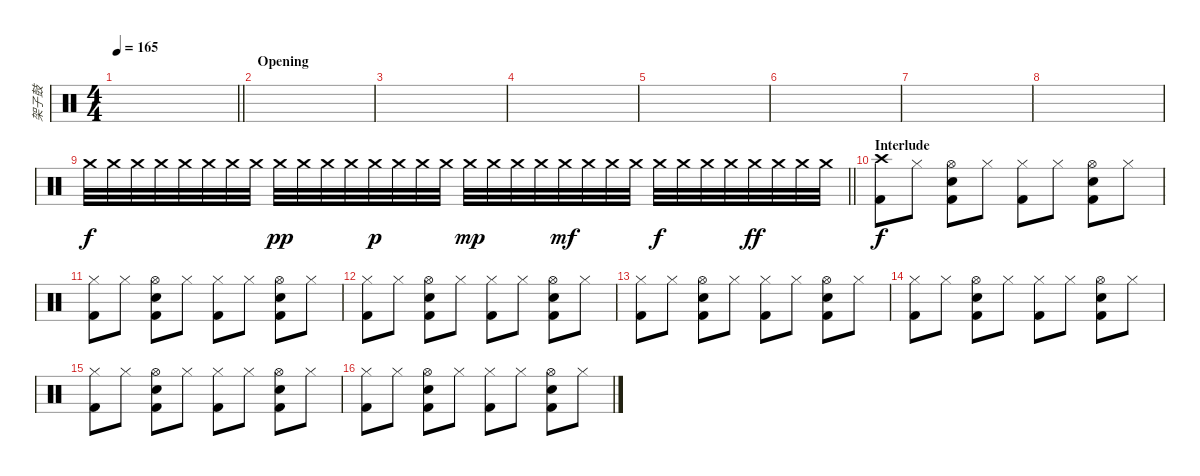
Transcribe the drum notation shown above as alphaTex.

\track ("架子鼓" "架子鼓") {instrument percussion}
\staff {score}
\articulation defaults
\ts (4 4)
\tempo 165
\clef neutral
\barLineRight lightlight
\ks c
|
\section ("" "Opening")
|
|
|
|
|
|
|
\barLineRight lightlight "Crash medium (hit)".32 "Crash medium (hit)".32 "Crash medium (hit)".32 "Crash medium (hit)".32 "Crash medium (hit)".32 "Crash medium (hit)".32 "Crash medium (hit)".32 "Crash medium (hit)".32 "Crash medium (hit)".32{dy pp} "Crash medium (hit)".32 "Crash medium (hit)".32 "Crash medium (hit)".32 "Crash medium (hit)".32{dy p} "Crash medium (hit)".32 "Crash medium (hit)".32 "Crash medium (hit)".32 "Crash medium (hit)".32{dy mp} "Crash medium (hit)".32 "Crash medium (hit)".32 "Crash medium (hit)".32 "Crash medium (hit)".32{dy mf} "Crash medium (hit)".32 "Crash medium (hit)".32 "Crash medium (hit)".32 "Crash medium (hit)".32{dy f} "Crash medium (hit)".32 "Crash medium (hit)".32 "Crash medium (hit)".32 "Crash medium (hit)".32{dy ff} "Crash medium (hit)".32 "Crash medium (hit)".32 "Crash medium (hit)".32
|
\section ("" "Interlude")
("Crash high (hit)" "Kick (hit) 2").8{dy f} "Hi-Hat (closed)".8 ("Hi-Hat (open)" "Electric Snare (hit)" "Kick (hit) 2").8 "Hi-Hat (closed)".8 ("Hi-Hat (closed)" "Kick (hit) 2").8 "Hi-Hat (closed)".8 ("Hi-Hat (open)" "Electric Snare (hit)" "Kick (hit) 2").8 "Hi-Hat (closed)".8 |
("Hi-Hat (closed)" "Kick (hit) 2").8 "Hi-Hat (closed)".8 ("Hi-Hat (open)" "Electric Snare (hit)" "Kick (hit) 2").8 "Hi-Hat (closed)".8 ("Hi-Hat (closed)" "Kick (hit) 2").8 "Hi-Hat (closed)".8 ("Hi-Hat (open)" "Electric Snare (hit)" "Kick (hit) 2").8 "Hi-Hat (closed)".8 |
("Hi-Hat (closed)" "Kick (hit) 2").8 "Hi-Hat (closed)".8 ("Hi-Hat (open)" "Electric Snare (hit)" "Kick (hit) 2").8 "Hi-Hat (closed)".8 ("Hi-Hat (closed)" "Kick (hit) 2").8 "Hi-Hat (closed)".8 ("Hi-Hat (open)" "Electric Snare (hit)" "Kick (hit) 2").8 "Hi-Hat (closed)".8 |
("Hi-Hat (closed)" "Kick (hit) 2").8 "Hi-Hat (closed)".8 ("Hi-Hat (open)" "Electric Snare (hit)" "Kick (hit) 2").8 "Hi-Hat (closed)".8 ("Hi-Hat (closed)" "Kick (hit) 2").8 "Hi-Hat (closed)".8 ("Hi-Hat (open)" "Electric Snare (hit)" "Kick (hit) 2").8 "Hi-Hat (closed)".8 |
("Hi-Hat (closed)" "Kick (hit) 2").8 "Hi-Hat (closed)".8 ("Hi-Hat (open)" "Electric Snare (hit)" "Kick (hit) 2").8 "Hi-Hat (closed)".8 ("Hi-Hat (closed)" "Kick (hit) 2").8 "Hi-Hat (closed)".8 ("Hi-Hat (open)" "Electric Snare (hit)" "Kick (hit) 2").8 "Hi-Hat (closed)".8 |
("Hi-Hat (closed)" "Kick (hit) 2").8 "Hi-Hat (closed)".8 ("Hi-Hat (open)" "Electric Snare (hit)" "Kick (hit) 2").8 "Hi-Hat (closed)".8 ("Hi-Hat (closed)" "Kick (hit) 2").8 "Hi-Hat (closed)".8 ("Hi-Hat (open)" "Electric Snare (hit)" "Kick (hit) 2").8 "Hi-Hat (closed)".8 |
("Hi-Hat (closed)" "Kick (hit) 2").8 "Hi-Hat (closed)".8 ("Hi-Hat (open)" "Electric Snare (hit)" "Kick (hit) 2").8 "Hi-Hat (closed)".8 ("Hi-Hat (closed)" "Kick (hit) 2").8 "Hi-Hat (closed)".8 ("Hi-Hat (open)" "Electric Snare (hit)" "Kick (hit) 2").8 "Hi-Hat (closed)".8
